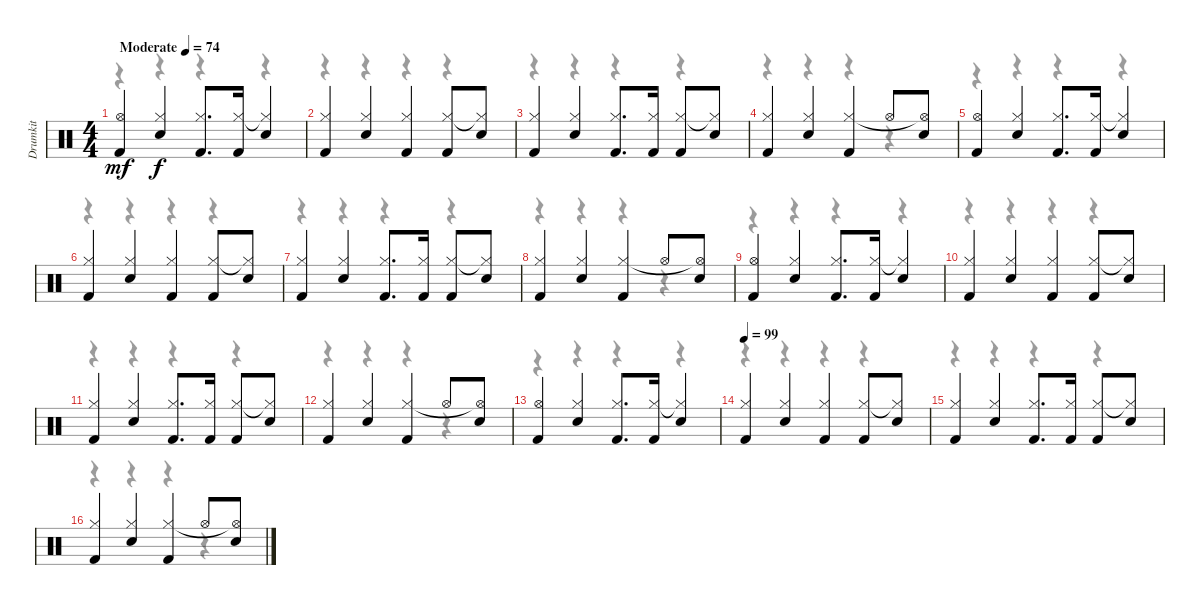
\track ("Drumkit" "Drumkit") {instrument percussion}
\staff {score}
\articulation defaults
\voice
\ts (4 4)
\tempo (74 "Moderate")
\clef neutral
\ks c
("Kick (hit) 2" "Hi-Hat (open)").4{dy mf} ("Snare (hit) 2" "Hi-Hat (closed)").4{dy f} ("Kick (hit) 2" "Hi-Hat (closed)").8{d} ("Kick (hit) 2" "Hi-Hat (closed)").16 ("Snare (hit) 2" "Hi-Hat (closed)"{t}).4 |
("Kick (hit) 2" "Hi-Hat (closed)").4 ("Snare (hit) 2" "Hi-Hat (closed)").4 ("Kick (hit) 2" "Hi-Hat (closed)").4 ("Kick (hit) 2" "Hi-Hat (closed)").8 ("Snare (hit) 2" "Hi-Hat (closed)"{t}).8 |
("Kick (hit) 2" "Hi-Hat (closed)").4 ("Snare (hit) 2" "Hi-Hat (closed)").4 ("Kick (hit) 2" "Hi-Hat (closed)").8{d} ("Kick (hit) 2" "Hi-Hat (closed)").16 ("Kick (hit) 2" "Hi-Hat (closed)").8 ("Snare (hit) 2" "Hi-Hat (closed)"{t}).8 |
("Kick (hit) 2" "Hi-Hat (closed)").4 ("Snare (hit) 2" "Hi-Hat (closed)").4 ("Kick (hit) 2" "Hi-Hat (closed)").4 "Hi-Hat (open)".8 ("Snare (hit) 2" "Hi-Hat (open)"{t}).8 |
("Kick (hit) 2" "Hi-Hat (open)").4 ("Snare (hit) 2" "Hi-Hat (closed)").4 ("Kick (hit) 2" "Hi-Hat (closed)").8{d} ("Kick (hit) 2" "Hi-Hat (closed)").16 ("Snare (hit) 2" "Hi-Hat (closed)"{t}).4 |
("Kick (hit) 2" "Hi-Hat (closed)").4 ("Snare (hit) 2" "Hi-Hat (closed)").4 ("Kick (hit) 2" "Hi-Hat (closed)").4 ("Kick (hit) 2" "Hi-Hat (closed)").8 ("Snare (hit) 2" "Hi-Hat (closed)"{t}).8 |
("Kick (hit) 2" "Hi-Hat (closed)").4 ("Snare (hit) 2" "Hi-Hat (closed)").4 ("Kick (hit) 2" "Hi-Hat (closed)").8{d} ("Kick (hit) 2" "Hi-Hat (closed)").16 ("Kick (hit) 2" "Hi-Hat (closed)").8 ("Snare (hit) 2" "Hi-Hat (closed)"{t}).8 |
("Kick (hit) 2" "Hi-Hat (closed)").4 ("Snare (hit) 2" "Hi-Hat (closed)").4 ("Kick (hit) 2" "Hi-Hat (closed)").4 "Hi-Hat (open)".8 ("Snare (hit) 2" "Hi-Hat (open)"{t}).8 |
("Kick (hit) 2" "Hi-Hat (open)").4 ("Snare (hit) 2" "Hi-Hat (closed)").4 ("Kick (hit) 2" "Hi-Hat (closed)").8{d} ("Kick (hit) 2" "Hi-Hat (closed)").16 ("Snare (hit) 2" "Hi-Hat (closed)"{t}).4 |
("Kick (hit) 2" "Hi-Hat (closed)").4 ("Snare (hit) 2" "Hi-Hat (closed)").4 ("Kick (hit) 2" "Hi-Hat (closed)").4 ("Kick (hit) 2" "Hi-Hat (closed)").8 ("Snare (hit) 2" "Hi-Hat (closed)"{t}).8 |
("Kick (hit) 2" "Hi-Hat (closed)").4 ("Snare (hit) 2" "Hi-Hat (closed)").4 ("Kick (hit) 2" "Hi-Hat (closed)").8{d} ("Kick (hit) 2" "Hi-Hat (closed)").16 ("Kick (hit) 2" "Hi-Hat (closed)").8 ("Snare (hit) 2" "Hi-Hat (closed)"{t}).8 |
("Kick (hit) 2" "Hi-Hat (closed)").4 ("Snare (hit) 2" "Hi-Hat (closed)").4 ("Kick (hit) 2" "Hi-Hat (closed)").4 "Hi-Hat (open)".8 ("Snare (hit) 2" "Hi-Hat (open)"{t}).8 |
("Kick (hit) 2" "Hi-Hat (open)").4 ("Snare (hit) 2" "Hi-Hat (closed)").4 ("Kick (hit) 2" "Hi-Hat (closed)").8{d} ("Kick (hit) 2" "Hi-Hat (closed)").16 ("Snare (hit) 2" "Hi-Hat (closed)"{t}).4 |
\tempo 99
("Kick (hit) 2" "Hi-Hat (closed)").4 ("Snare (hit) 2" "Hi-Hat (closed)").4 ("Kick (hit) 2" "Hi-Hat (closed)").4 ("Kick (hit) 2" "Hi-Hat (closed)").8 ("Snare (hit) 2" "Hi-Hat (closed)"{t}).8 |
("Kick (hit) 2" "Hi-Hat (closed)").4 ("Snare (hit) 2" "Hi-Hat (closed)").4 ("Kick (hit) 2" "Hi-Hat (closed)").8{d} ("Kick (hit) 2" "Hi-Hat (closed)").16 ("Kick (hit) 2" "Hi-Hat (closed)").8 ("Snare (hit) 2" "Hi-Hat (closed)"{t}).8 |
("Kick (hit) 2" "Hi-Hat (closed)").4 ("Snare (hit) 2" "Hi-Hat (closed)").4 ("Kick (hit) 2" "Hi-Hat (closed)").4 "Hi-Hat (open)".8 ("Snare (hit) 2" "Hi-Hat (open)"{t}).8
\voice
\clef neutral
\ottava regular
\simile none
\ks c
r.4{dy f} r.4 r.4 r.4 |
r.4 r.4 r.4 r.4 |
r.4 r.4 r.4 r.4 |
r.4 r.4 r.4 r.4 |
r.4 r.4 r.4 r.4 |
r.4 r.4 r.4 r.4 |
r.4 r.4 r.4 r.4 |
r.4 r.4 r.4 r.4 |
r.4 r.4 r.4 r.4 |
r.4 r.4 r.4 r.4 |
r.4 r.4 r.4 r.4 |
r.4 r.4 r.4 r.4 |
r.4 r.4 r.4 r.4 |
r.4 r.4 r.4 r.4 |
r.4 r.4 r.4 r.4 |
r.4 r.4 r.4 r.4
